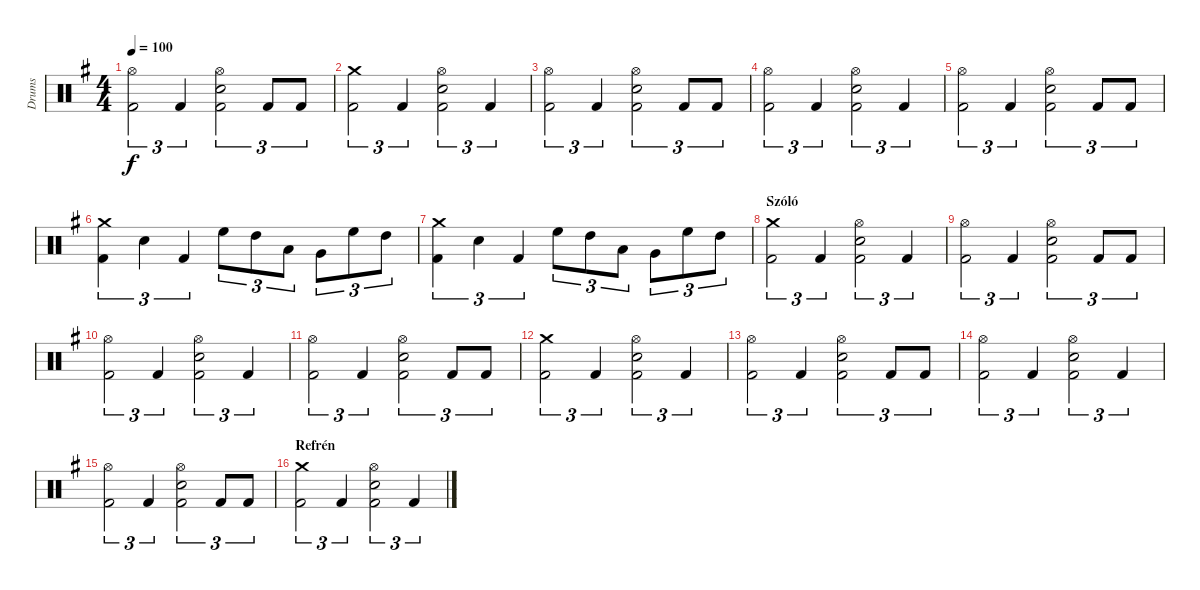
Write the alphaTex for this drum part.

\track ("Drums" "Drums") {instrument percussion}
\staff {score}
\articulation defaults
\ts (4 4)
\tempo 100
\clef neutral
\ks g
("Hi-Hat (open)" "Kick (hit) 2").2{tu (3 2) dy f} "Kick (hit) 2".4{tu (3 2)} ("Hi-Hat (open)" "Snare (hit) 2" "Kick (hit) 2").2{tu (3 2)} "Kick (hit) 2".8{tu (3 2)} "Kick (hit) 2".8{tu (3 2)} |
("Crash medium (hit)" "Kick (hit) 2").2{tu (3 2)} "Kick (hit) 2".4{tu (3 2)} ("Hi-Hat (open)" "Snare (hit) 2" "Kick (hit) 2").2{tu (3 2)} "Kick (hit) 2".4{tu (3 2)} |
("Hi-Hat (open)" "Kick (hit) 2").2{tu (3 2)} "Kick (hit) 2".4{tu (3 2)} ("Hi-Hat (open)" "Snare (hit) 2" "Kick (hit) 2").2{tu (3 2)} "Kick (hit) 2".8{tu (3 2)} "Kick (hit) 2".8{tu (3 2)} |
("Hi-Hat (open)" "Kick (hit) 2").2{tu (3 2)} "Kick (hit) 2".4{tu (3 2)} ("Hi-Hat (open)" "Snare (hit) 2" "Kick (hit) 2").2{tu (3 2)} "Kick (hit) 2".4{tu (3 2)} |
("Hi-Hat (open)" "Kick (hit) 2").2{tu (3 2)} "Kick (hit) 2".4{tu (3 2)} ("Hi-Hat (open)" "Snare (hit) 2" "Kick (hit) 2").2{tu (3 2)} "Kick (hit) 2".8{tu (3 2)} "Kick (hit) 2".8{tu (3 2)} |
("Crash medium (hit)" "Kick (hit) 2").4{tu (3 2)} "Snare (hit) 2".4{tu (3 2)} "Kick (hit) 2".4{tu (3 2)} "High Floor Tom (hit)".8{tu (3 2)} "High Tom (hit)".8{tu (3 2)} "Low Tom (hit)".8{tu (3 2)} "Very Low Tom (hit)".8{tu (3 2)} "High Floor Tom (hit)".8{tu (3 2)} "High Tom (hit)".8{tu (3 2)} |
("Crash medium (hit)" "Kick (hit) 2").4{tu (3 2)} "Snare (hit) 2".4{tu (3 2)} "Kick (hit) 2".4{tu (3 2)} "High Floor Tom (hit)".8{tu (3 2)} "High Tom (hit)".8{tu (3 2)} "Low Tom (hit)".8{tu (3 2)} "Very Low Tom (hit)".8{tu (3 2)} "High Floor Tom (hit)".8{tu (3 2)} "High Tom (hit)".8{tu (3 2)} |
\section ("" "Szóló")
("Crash medium (hit)" "Kick (hit) 2").2{tu (3 2)} "Kick (hit) 2".4{tu (3 2)} ("Hi-Hat (open)" "Snare (hit) 2" "Kick (hit) 2").2{tu (3 2)} "Kick (hit) 2".4{tu (3 2)} |
("Hi-Hat (open)" "Kick (hit) 2").2{tu (3 2)} "Kick (hit) 2".4{tu (3 2)} ("Hi-Hat (open)" "Snare (hit) 2" "Kick (hit) 2").2{tu (3 2)} "Kick (hit) 2".8{tu (3 2)} "Kick (hit) 2".8{tu (3 2)} |
("Hi-Hat (open)" "Kick (hit) 2").2{tu (3 2)} "Kick (hit) 2".4{tu (3 2)} ("Hi-Hat (open)" "Snare (hit) 2" "Kick (hit) 2").2{tu (3 2)} "Kick (hit) 2".4{tu (3 2)} |
("Hi-Hat (open)" "Kick (hit) 2").2{tu (3 2)} "Kick (hit) 2".4{tu (3 2)} ("Hi-Hat (open)" "Snare (hit) 2" "Kick (hit) 2").2{tu (3 2)} "Kick (hit) 2".8{tu (3 2)} "Kick (hit) 2".8{tu (3 2)} |
("Crash medium (hit)" "Kick (hit) 2").2{tu (3 2)} "Kick (hit) 2".4{tu (3 2)} ("Hi-Hat (open)" "Snare (hit) 2" "Kick (hit) 2").2{tu (3 2)} "Kick (hit) 2".4{tu (3 2)} |
("Hi-Hat (open)" "Kick (hit) 2").2{tu (3 2)} "Kick (hit) 2".4{tu (3 2)} ("Hi-Hat (open)" "Snare (hit) 2" "Kick (hit) 2").2{tu (3 2)} "Kick (hit) 2".8{tu (3 2)} "Kick (hit) 2".8{tu (3 2)} |
("Hi-Hat (open)" "Kick (hit) 2").2{tu (3 2)} "Kick (hit) 2".4{tu (3 2)} ("Hi-Hat (open)" "Snare (hit) 2" "Kick (hit) 2").2{tu (3 2)} "Kick (hit) 2".4{tu (3 2)} |
("Hi-Hat (open)" "Kick (hit) 2").2{tu (3 2)} "Kick (hit) 2".4{tu (3 2)} ("Hi-Hat (open)" "Snare (hit) 2" "Kick (hit) 2").2{tu (3 2)} "Kick (hit) 2".8{tu (3 2)} "Kick (hit) 2".8{tu (3 2)} |
\section ("" "Refrén")
("Crash medium (hit)" "Kick (hit) 2").2{tu (3 2)} "Kick (hit) 2".4{tu (3 2)} ("Hi-Hat (open)" "Snare (hit) 2" "Kick (hit) 2").2{tu (3 2)} "Kick (hit) 2".4{tu (3 2)}
